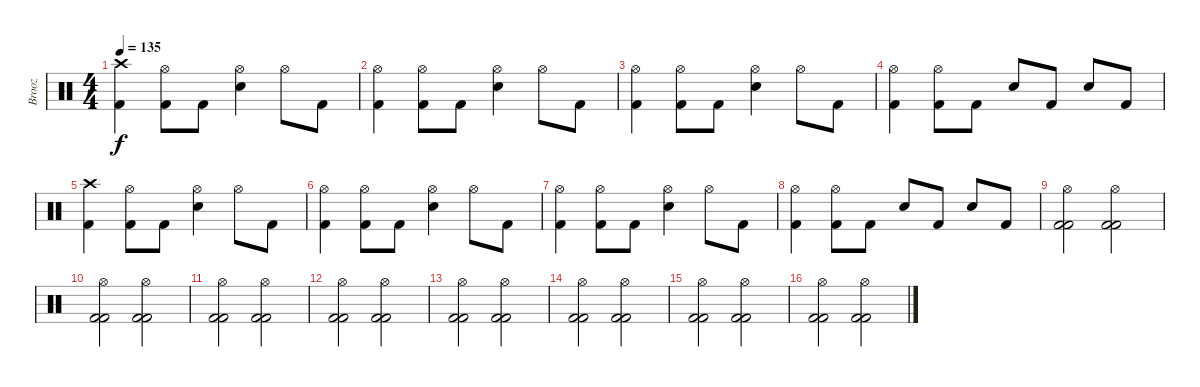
\track ("Brooz" "Brooz") {instrument percussion}
\staff {score}
\articulation defaults
\ts (4 4)
\tempo 135
\clef neutral
\ks c
("Crash high (hit)" "Kick (hit) 2").4{dy f} ("Hi-Hat (open)" "Kick (hit) 2").8 "Kick (hit) 2".8 ("Hi-Hat (open)" "Snare (hit) 2").4 "Hi-Hat (open)".8 "Kick (hit) 2".8 |
("Hi-Hat (open)" "Kick (hit) 2").4 ("Hi-Hat (open)" "Kick (hit) 2").8 "Kick (hit) 2".8 ("Hi-Hat (open)" "Snare (hit) 2").4 "Hi-Hat (open)".8 "Kick (hit) 2".8 |
("Hi-Hat (open)" "Kick (hit) 2").4 ("Hi-Hat (open)" "Kick (hit) 2").8 "Kick (hit) 2".8 ("Hi-Hat (open)" "Snare (hit) 2").4 "Hi-Hat (open)".8 "Kick (hit) 2".8 |
("Hi-Hat (open)" "Kick (hit) 2").4 ("Hi-Hat (open)" "Kick (hit) 2").8 "Kick (hit) 2".8 "Snare (hit) 2".8 "Kick (hit) 2".8 "Snare (hit) 2".8 "Kick (hit) 2".8 |
("Crash high (hit)" "Kick (hit) 2").4 ("Hi-Hat (open)" "Kick (hit) 2").8 "Kick (hit) 2".8 ("Hi-Hat (open)" "Snare (hit) 2").4 "Hi-Hat (open)".8 "Kick (hit) 2".8 |
("Hi-Hat (open)" "Kick (hit) 2").4 ("Hi-Hat (open)" "Kick (hit) 2").8 "Kick (hit) 2".8 ("Hi-Hat (open)" "Snare (hit) 2").4 "Hi-Hat (open)".8 "Kick (hit) 2".8 |
("Hi-Hat (open)" "Kick (hit) 2").4 ("Hi-Hat (open)" "Kick (hit) 2").8 "Kick (hit) 2".8 ("Hi-Hat (open)" "Snare (hit) 2").4 "Hi-Hat (open)".8 "Kick (hit) 2".8 |
("Hi-Hat (open)" "Kick (hit) 2").4 ("Hi-Hat (open)" "Kick (hit) 2").8 "Kick (hit) 2".8 "Snare (hit) 2".8 "Kick (hit) 2".8 "Snare (hit) 2".8 "Kick (hit) 2".8 |
("Hi-Hat (open)" "Kick (hit) 2" "Kick (hit) 2").2 ("Hi-Hat (open)" "Kick (hit) 2" "Kick (hit) 2").2 |
("Hi-Hat (open)" "Kick (hit) 2" "Kick (hit) 2").2 ("Hi-Hat (open)" "Kick (hit) 2" "Kick (hit) 2").2 |
("Hi-Hat (open)" "Kick (hit) 2" "Kick (hit) 2").2 ("Hi-Hat (open)" "Kick (hit) 2" "Kick (hit) 2").2 |
("Hi-Hat (open)" "Kick (hit) 2" "Kick (hit) 2").2 ("Hi-Hat (open)" "Kick (hit) 2" "Kick (hit) 2").2 |
("Hi-Hat (open)" "Kick (hit) 2" "Kick (hit) 2").2 ("Hi-Hat (open)" "Kick (hit) 2" "Kick (hit) 2").2 |
("Hi-Hat (open)" "Kick (hit) 2" "Kick (hit) 2").2 ("Hi-Hat (open)" "Kick (hit) 2" "Kick (hit) 2").2 |
("Hi-Hat (open)" "Kick (hit) 2" "Kick (hit) 2").2 ("Hi-Hat (open)" "Kick (hit) 2" "Kick (hit) 2").2 |
("Hi-Hat (open)" "Kick (hit) 2" "Kick (hit) 2").2 ("Hi-Hat (open)" "Kick (hit) 2" "Kick (hit) 2").2
